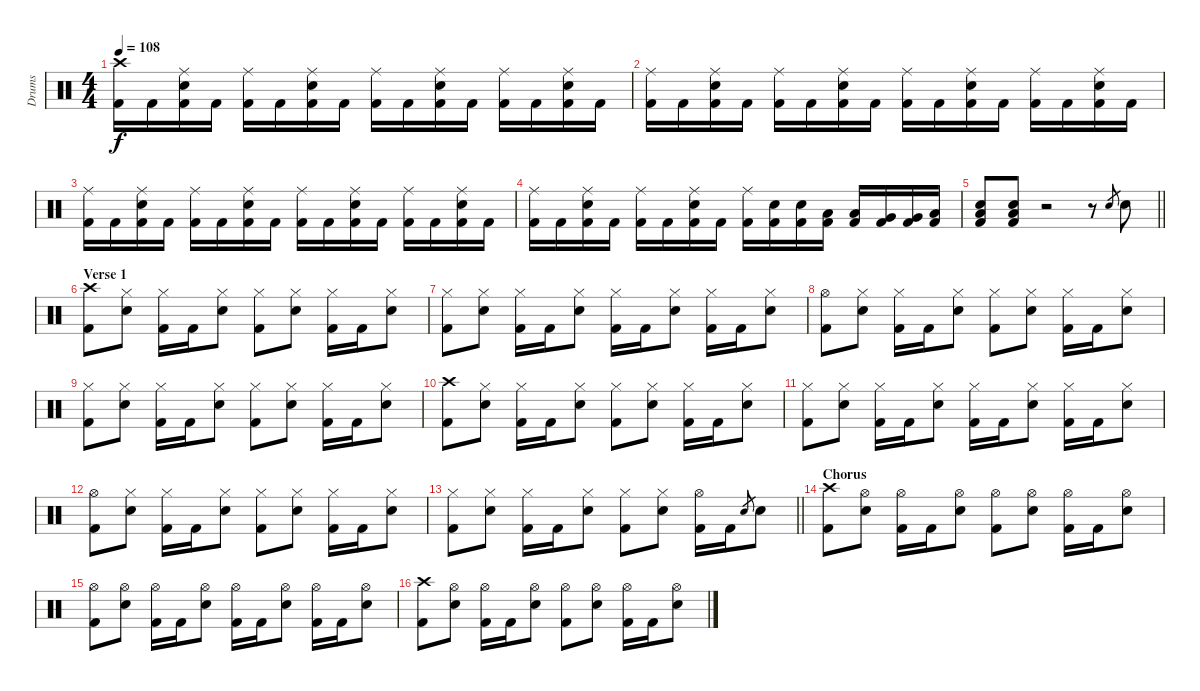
\track ("Drums" "Drums") {instrument percussion}
\staff {score}
\articulation defaults
\ts (4 4)
\tempo 108
\clef neutral
\ks c
("Crash high (hit)" "Kick (hit) 2").16{dy f} "Kick (hit) 2".16 ("Ride (middle)" "Electric Snare (hit)" "Kick (hit) 2").16 "Kick (hit) 2".16 ("Ride (middle)" "Kick (hit) 2").16 "Kick (hit) 2".16 ("Ride (middle)" "Electric Snare (hit)" "Kick (hit) 2").16 "Kick (hit) 2".16 ("Ride (middle)" "Kick (hit) 2").16 "Kick (hit) 2".16 ("Ride (middle)" "Electric Snare (hit)" "Kick (hit) 2").16 "Kick (hit) 2".16 ("Ride (middle)" "Kick (hit) 2").16 "Kick (hit) 2".16 ("Ride (middle)" "Electric Snare (hit)" "Kick (hit) 2").16 "Kick (hit) 2".16 |
("Ride (middle)" "Kick (hit) 2").16 "Kick (hit) 2".16 ("Ride (middle)" "Electric Snare (hit)" "Kick (hit) 2").16 "Kick (hit) 2".16 ("Ride (middle)" "Kick (hit) 2").16 "Kick (hit) 2".16 ("Ride (middle)" "Electric Snare (hit)" "Kick (hit) 2").16 "Kick (hit) 2".16 ("Ride (middle)" "Kick (hit) 2").16 "Kick (hit) 2".16 ("Ride (middle)" "Electric Snare (hit)" "Kick (hit) 2").16 "Kick (hit) 2".16 ("Ride (middle)" "Kick (hit) 2").16 "Kick (hit) 2".16 ("Ride (middle)" "Electric Snare (hit)" "Kick (hit) 2").16 "Kick (hit) 2".16 |
("Ride (middle)" "Kick (hit) 2").16 "Kick (hit) 2".16 ("Ride (middle)" "Electric Snare (hit)" "Kick (hit) 2").16 "Kick (hit) 2".16 ("Ride (middle)" "Kick (hit) 2").16 "Kick (hit) 2".16 ("Ride (middle)" "Electric Snare (hit)" "Kick (hit) 2").16 "Kick (hit) 2".16 ("Ride (middle)" "Kick (hit) 2").16 "Kick (hit) 2".16 ("Ride (middle)" "Electric Snare (hit)" "Kick (hit) 2").16 "Kick (hit) 2".16 ("Ride (middle)" "Kick (hit) 2").16 "Kick (hit) 2".16 ("Ride (middle)" "Electric Snare (hit)" "Kick (hit) 2").16 "Kick (hit) 2".16 |
("Ride (middle)" "Kick (hit) 2").16 "Kick (hit) 2".16 ("Ride (middle)" "Electric Snare (hit)" "Kick (hit) 2").16 "Kick (hit) 2".16 ("Ride (middle)" "Kick (hit) 2").16 "Kick (hit) 2".16 ("Ride (middle)" "Electric Snare (hit)" "Kick (hit) 2").16 "Kick (hit) 2".16 ("Ride (middle)" "Kick (hit) 2").16 ("Electric Snare (hit)" "Kick (hit) 2").16 ("Electric Snare (hit)" "Kick (hit) 2").16 ("Low Tom (hit)" "Kick (hit) 2").16 ("Low Tom (hit)" "Kick (hit) 2").16 ("Very Low Tom (hit)" "Kick (hit) 2").16 ("Very Low Tom (hit)" "Kick (hit) 2").16 ("Low Floor Tom (hit)" "Kick (hit) 2").16 |
\barLineRight lightlight
("Low Floor Tom (hit)" "Electric Snare (hit)" "Kick (hit) 2").8 ("Low Floor Tom (hit)" "Electric Snare (hit)" "Kick (hit) 2").8 r.2 r.8 "Electric Snare (hit)".8{gr} "Electric Snare (hit)".8 |
\section ("" "Verse 1")
("Crash high (hit)" "Kick (hit) 2").8 ("Hi-Hat (closed)" "Electric Snare (hit)").8 ("Hi-Hat (closed)" "Kick (hit) 2").16 "Kick (hit) 2".16 ("Hi-Hat (closed)" "Electric Snare (hit)").8 ("Hi-Hat (closed)" "Kick (hit) 2").8 ("Hi-Hat (closed)" "Electric Snare (hit)").8 ("Hi-Hat (closed)" "Kick (hit) 2").16 "Kick (hit) 2".16 ("Hi-Hat (closed)" "Electric Snare (hit)").8 |
("Hi-Hat (closed)" "Kick (hit) 2").8 ("Hi-Hat (closed)" "Electric Snare (hit)").8 ("Hi-Hat (closed)" "Kick (hit) 2").16 "Kick (hit) 2".16 ("Hi-Hat (closed)" "Electric Snare (hit)").8 ("Hi-Hat (closed)" "Kick (hit) 2").16 "Kick (hit) 2".16 ("Hi-Hat (closed)" "Electric Snare (hit)").8 ("Hi-Hat (closed)" "Kick (hit) 2").16 "Kick (hit) 2".16 ("Hi-Hat (closed)" "Electric Snare (hit)").8 |
("Hi-Hat (open)" "Kick (hit) 2").8 ("Hi-Hat (closed)" "Electric Snare (hit)").8 ("Hi-Hat (closed)" "Kick (hit) 2").16 "Kick (hit) 2".16 ("Hi-Hat (closed)" "Electric Snare (hit)").8 ("Hi-Hat (closed)" "Kick (hit) 2").8 ("Hi-Hat (closed)" "Electric Snare (hit)").8 ("Hi-Hat (closed)" "Kick (hit) 2").16 "Kick (hit) 2".16 ("Hi-Hat (closed)" "Electric Snare (hit)").8 |
("Hi-Hat (closed)" "Kick (hit) 2").8 ("Hi-Hat (closed)" "Electric Snare (hit)").8 ("Hi-Hat (closed)" "Kick (hit) 2").16 "Kick (hit) 2".16 ("Hi-Hat (closed)" "Electric Snare (hit)").8 ("Hi-Hat (closed)" "Kick (hit) 2").8 ("Hi-Hat (closed)" "Electric Snare (hit)").8 ("Hi-Hat (closed)" "Kick (hit) 2").16 "Kick (hit) 2".16 ("Hi-Hat (closed)" "Electric Snare (hit)").8 |
("Crash high (hit)" "Kick (hit) 2").8 ("Hi-Hat (closed)" "Electric Snare (hit)").8 ("Hi-Hat (closed)" "Kick (hit) 2").16 "Kick (hit) 2".16 ("Hi-Hat (closed)" "Electric Snare (hit)").8 ("Hi-Hat (closed)" "Kick (hit) 2").8 ("Hi-Hat (closed)" "Electric Snare (hit)").8 ("Hi-Hat (closed)" "Kick (hit) 2").16 "Kick (hit) 2".16 ("Hi-Hat (closed)" "Electric Snare (hit)").8 |
("Hi-Hat (closed)" "Kick (hit) 2").8 ("Hi-Hat (closed)" "Electric Snare (hit)").8 ("Hi-Hat (closed)" "Kick (hit) 2").16 "Kick (hit) 2".16 ("Hi-Hat (closed)" "Electric Snare (hit)").8 ("Hi-Hat (closed)" "Kick (hit) 2").16 "Kick (hit) 2".16 ("Hi-Hat (closed)" "Electric Snare (hit)").8 ("Hi-Hat (closed)" "Kick (hit) 2").16 "Kick (hit) 2".16 ("Hi-Hat (closed)" "Electric Snare (hit)").8 |
("Hi-Hat (open)" "Kick (hit) 2").8 ("Hi-Hat (closed)" "Electric Snare (hit)").8 ("Hi-Hat (closed)" "Kick (hit) 2").16 "Kick (hit) 2".16 ("Hi-Hat (closed)" "Electric Snare (hit)").8 ("Hi-Hat (closed)" "Kick (hit) 2").8 ("Hi-Hat (closed)" "Electric Snare (hit)").8 ("Hi-Hat (closed)" "Kick (hit) 2").16 "Kick (hit) 2".16 ("Hi-Hat (closed)" "Electric Snare (hit)").8 |
\barLineRight lightlight
("Hi-Hat (closed)" "Kick (hit) 2").8 ("Hi-Hat (closed)" "Electric Snare (hit)").8 ("Hi-Hat (closed)" "Kick (hit) 2").16 "Kick (hit) 2".16 ("Hi-Hat (closed)" "Electric Snare (hit)").8 ("Hi-Hat (closed)" "Kick (hit) 2").8 ("Hi-Hat (closed)" "Electric Snare (hit)").8 ("Hi-Hat (open)" "Kick (hit) 2").16 "Kick (hit) 2".16 "Electric Snare (hit)".8{gr} "Electric Snare (hit)".8 |
\section ("" "Chorus")
("Crash high (hit)" "Kick (hit) 2").8 ("Hi-Hat (open)" "Electric Snare (hit)").8 ("Hi-Hat (open)" "Kick (hit) 2").16 "Kick (hit) 2".16 ("Hi-Hat (open)" "Electric Snare (hit)").8 ("Hi-Hat (open)" "Kick (hit) 2").8 ("Hi-Hat (open)" "Electric Snare (hit)").8 ("Hi-Hat (open)" "Kick (hit) 2").16 "Kick (hit) 2".16 ("Hi-Hat (open)" "Electric Snare (hit)").8 |
("Hi-Hat (open)" "Kick (hit) 2").8 ("Hi-Hat (open)" "Electric Snare (hit)").8 ("Hi-Hat (open)" "Kick (hit) 2").16 "Kick (hit) 2".16 ("Hi-Hat (open)" "Electric Snare (hit)").8 ("Hi-Hat (open)" "Kick (hit) 2").16 "Kick (hit) 2".16 ("Hi-Hat (open)" "Electric Snare (hit)").8 ("Hi-Hat (open)" "Kick (hit) 2").16 "Kick (hit) 2".16 ("Hi-Hat (open)" "Electric Snare (hit)").8 |
("Crash high (hit)" "Kick (hit) 2").8 ("Hi-Hat (open)" "Electric Snare (hit)").8 ("Hi-Hat (open)" "Kick (hit) 2").16 "Kick (hit) 2".16 ("Hi-Hat (open)" "Electric Snare (hit)").8 ("Hi-Hat (open)" "Kick (hit) 2").8 ("Hi-Hat (open)" "Electric Snare (hit)").8 ("Hi-Hat (open)" "Kick (hit) 2").16 "Kick (hit) 2".16 ("Hi-Hat (open)" "Electric Snare (hit)").8
